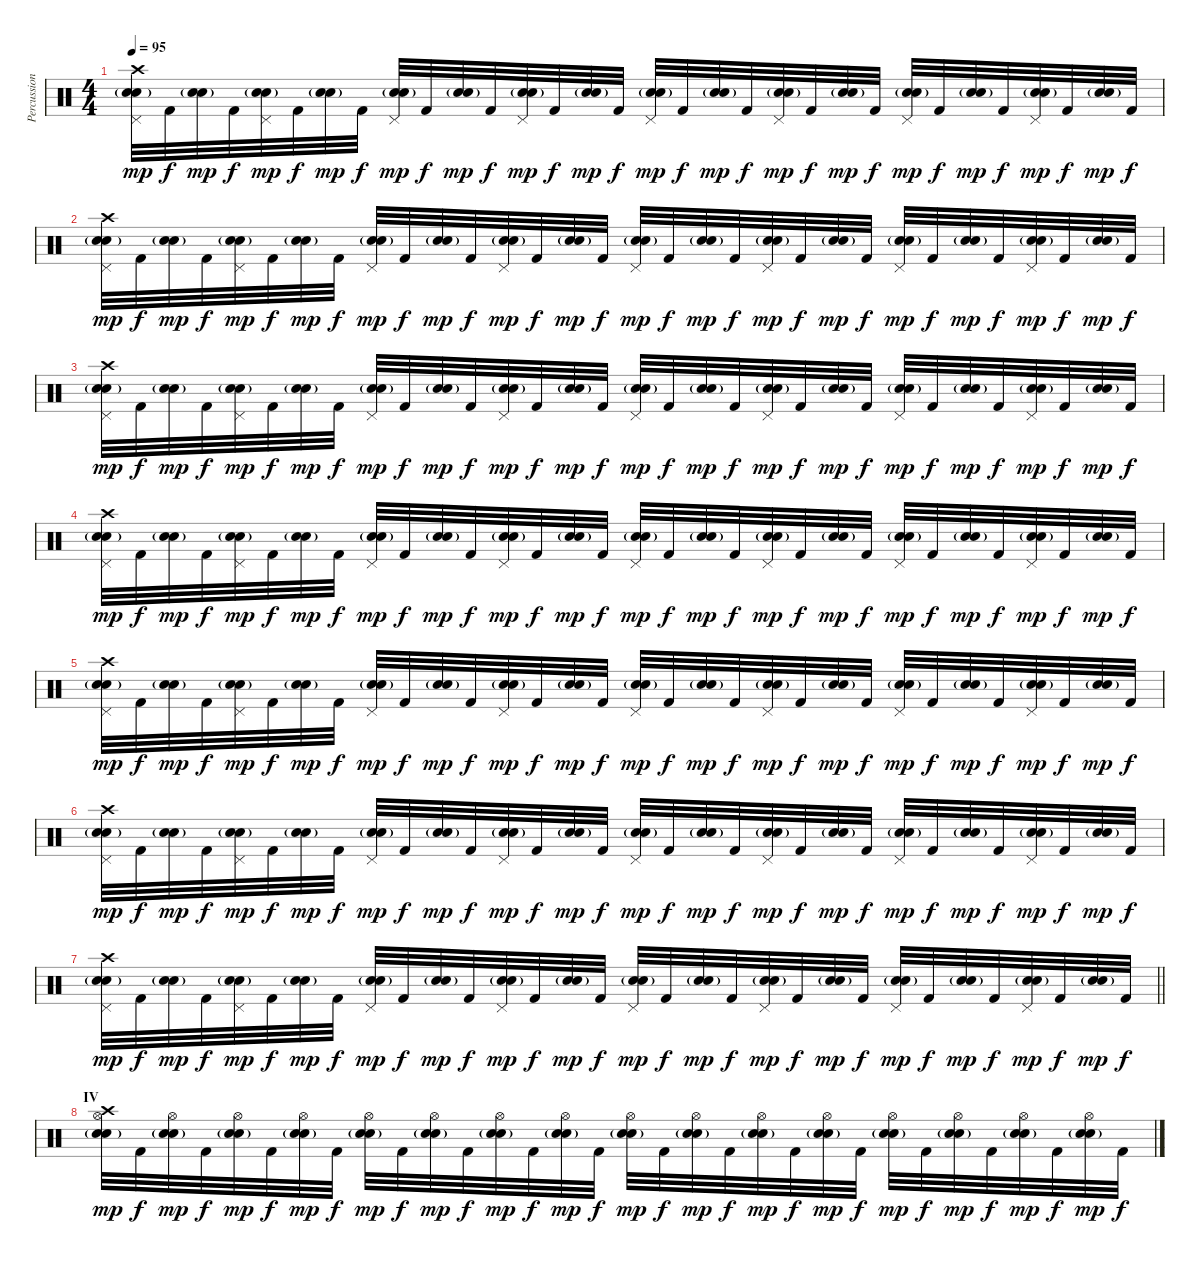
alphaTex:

\track ("Percussion" "Percussion") {instrument percussion}
\staff {score}
\articulation defaults
\ts (4 4)
\tempo 95
\clef neutral
\ks c
("Crash high (hit)" "Electric Snare (hit)" "Snare (hit) 2"{g} "Pedal Hi-Hat (hit)").32{dy mp} "Kick (hit) 2".32{dy f} ("Electric Snare (hit)" "Snare (hit) 2"{g}).32{dy mp} "Kick (hit) 2".32{dy f} ("Electric Snare (hit)" "Snare (hit) 2"{g} "Pedal Hi-Hat (hit)").32{dy mp} "Kick (hit) 2".32{dy f} ("Electric Snare (hit)" "Snare (hit) 2"{g}).32{dy mp} "Kick (hit) 2".32{dy f} ("Electric Snare (hit)" "Snare (hit) 2"{g} "Pedal Hi-Hat (hit)").32{dy mp} "Kick (hit) 2".32{dy f} ("Electric Snare (hit)" "Snare (hit) 2"{g}).32{dy mp} "Kick (hit) 2".32{dy f} ("Electric Snare (hit)" "Snare (hit) 2"{g} "Pedal Hi-Hat (hit)").32{dy mp} "Kick (hit) 2".32{dy f} ("Electric Snare (hit)" "Snare (hit) 2"{g}).32{dy mp} "Kick (hit) 2".32{dy f} ("Electric Snare (hit)" "Snare (hit) 2"{g} "Pedal Hi-Hat (hit)").32{dy mp} "Kick (hit) 2".32{dy f} ("Electric Snare (hit)" "Snare (hit) 2"{g}).32{dy mp} "Kick (hit) 2".32{dy f} ("Electric Snare (hit)" "Snare (hit) 2"{g} "Pedal Hi-Hat (hit)").32{dy mp} "Kick (hit) 2".32{dy f} ("Electric Snare (hit)" "Snare (hit) 2"{g}).32{dy mp} "Kick (hit) 2".32{dy f} ("Electric Snare (hit)" "Snare (hit) 2"{g} "Pedal Hi-Hat (hit)").32{dy mp} "Kick (hit) 2".32{dy f} ("Electric Snare (hit)" "Snare (hit) 2"{g}).32{dy mp} "Kick (hit) 2".32{dy f} ("Electric Snare (hit)" "Snare (hit) 2"{g} "Pedal Hi-Hat (hit)").32{dy mp} "Kick (hit) 2".32{dy f} ("Electric Snare (hit)" "Snare (hit) 2"{g}).32{dy mp} "Kick (hit) 2".32{dy f} |
("Crash high (hit)" "Electric Snare (hit)" "Snare (hit) 2"{g} "Pedal Hi-Hat (hit)").32{dy mp} "Kick (hit) 2".32{dy f} ("Electric Snare (hit)" "Snare (hit) 2"{g}).32{dy mp} "Kick (hit) 2".32{dy f} ("Electric Snare (hit)" "Snare (hit) 2"{g} "Pedal Hi-Hat (hit)").32{dy mp} "Kick (hit) 2".32{dy f} ("Electric Snare (hit)" "Snare (hit) 2"{g}).32{dy mp} "Kick (hit) 2".32{dy f} ("Electric Snare (hit)" "Snare (hit) 2"{g} "Pedal Hi-Hat (hit)").32{dy mp} "Kick (hit) 2".32{dy f} ("Electric Snare (hit)" "Snare (hit) 2"{g}).32{dy mp} "Kick (hit) 2".32{dy f} ("Electric Snare (hit)" "Snare (hit) 2"{g} "Pedal Hi-Hat (hit)").32{dy mp} "Kick (hit) 2".32{dy f} ("Electric Snare (hit)" "Snare (hit) 2"{g}).32{dy mp} "Kick (hit) 2".32{dy f} ("Electric Snare (hit)" "Snare (hit) 2"{g} "Pedal Hi-Hat (hit)").32{dy mp} "Kick (hit) 2".32{dy f} ("Electric Snare (hit)" "Snare (hit) 2"{g}).32{dy mp} "Kick (hit) 2".32{dy f} ("Electric Snare (hit)" "Snare (hit) 2"{g} "Pedal Hi-Hat (hit)").32{dy mp} "Kick (hit) 2".32{dy f} ("Electric Snare (hit)" "Snare (hit) 2"{g}).32{dy mp} "Kick (hit) 2".32{dy f} ("Electric Snare (hit)" "Snare (hit) 2"{g} "Pedal Hi-Hat (hit)").32{dy mp} "Kick (hit) 2".32{dy f} ("Electric Snare (hit)" "Snare (hit) 2"{g}).32{dy mp} "Kick (hit) 2".32{dy f} ("Electric Snare (hit)" "Snare (hit) 2"{g} "Pedal Hi-Hat (hit)").32{dy mp} "Kick (hit) 2".32{dy f} ("Electric Snare (hit)" "Snare (hit) 2"{g}).32{dy mp} "Kick (hit) 2".32{dy f} |
("Crash high (hit)" "Electric Snare (hit)" "Snare (hit) 2"{g} "Pedal Hi-Hat (hit)").32{dy mp} "Kick (hit) 2".32{dy f} ("Electric Snare (hit)" "Snare (hit) 2"{g}).32{dy mp} "Kick (hit) 2".32{dy f} ("Electric Snare (hit)" "Snare (hit) 2"{g} "Pedal Hi-Hat (hit)").32{dy mp} "Kick (hit) 2".32{dy f} ("Electric Snare (hit)" "Snare (hit) 2"{g}).32{dy mp} "Kick (hit) 2".32{dy f} ("Electric Snare (hit)" "Snare (hit) 2"{g} "Pedal Hi-Hat (hit)").32{dy mp} "Kick (hit) 2".32{dy f} ("Electric Snare (hit)" "Snare (hit) 2"{g}).32{dy mp} "Kick (hit) 2".32{dy f} ("Electric Snare (hit)" "Snare (hit) 2"{g} "Pedal Hi-Hat (hit)").32{dy mp} "Kick (hit) 2".32{dy f} ("Electric Snare (hit)" "Snare (hit) 2"{g}).32{dy mp} "Kick (hit) 2".32{dy f} ("Electric Snare (hit)" "Snare (hit) 2"{g} "Pedal Hi-Hat (hit)").32{dy mp} "Kick (hit) 2".32{dy f} ("Electric Snare (hit)" "Snare (hit) 2"{g}).32{dy mp} "Kick (hit) 2".32{dy f} ("Electric Snare (hit)" "Snare (hit) 2"{g} "Pedal Hi-Hat (hit)").32{dy mp} "Kick (hit) 2".32{dy f} ("Electric Snare (hit)" "Snare (hit) 2"{g}).32{dy mp} "Kick (hit) 2".32{dy f} ("Electric Snare (hit)" "Snare (hit) 2"{g} "Pedal Hi-Hat (hit)").32{dy mp} "Kick (hit) 2".32{dy f} ("Electric Snare (hit)" "Snare (hit) 2"{g}).32{dy mp} "Kick (hit) 2".32{dy f} ("Electric Snare (hit)" "Snare (hit) 2"{g} "Pedal Hi-Hat (hit)").32{dy mp} "Kick (hit) 2".32{dy f} ("Electric Snare (hit)" "Snare (hit) 2"{g}).32{dy mp} "Kick (hit) 2".32{dy f} |
("Crash high (hit)" "Electric Snare (hit)" "Snare (hit) 2"{g} "Pedal Hi-Hat (hit)").32{dy mp} "Kick (hit) 2".32{dy f} ("Electric Snare (hit)" "Snare (hit) 2"{g}).32{dy mp} "Kick (hit) 2".32{dy f} ("Electric Snare (hit)" "Snare (hit) 2"{g} "Pedal Hi-Hat (hit)").32{dy mp} "Kick (hit) 2".32{dy f} ("Electric Snare (hit)" "Snare (hit) 2"{g}).32{dy mp} "Kick (hit) 2".32{dy f} ("Electric Snare (hit)" "Snare (hit) 2"{g} "Pedal Hi-Hat (hit)").32{dy mp} "Kick (hit) 2".32{dy f} ("Electric Snare (hit)" "Snare (hit) 2"{g}).32{dy mp} "Kick (hit) 2".32{dy f} ("Electric Snare (hit)" "Snare (hit) 2"{g} "Pedal Hi-Hat (hit)").32{dy mp} "Kick (hit) 2".32{dy f} ("Electric Snare (hit)" "Snare (hit) 2"{g}).32{dy mp} "Kick (hit) 2".32{dy f} ("Electric Snare (hit)" "Snare (hit) 2"{g} "Pedal Hi-Hat (hit)").32{dy mp} "Kick (hit) 2".32{dy f} ("Electric Snare (hit)" "Snare (hit) 2"{g}).32{dy mp} "Kick (hit) 2".32{dy f} ("Electric Snare (hit)" "Snare (hit) 2"{g} "Pedal Hi-Hat (hit)").32{dy mp} "Kick (hit) 2".32{dy f} ("Electric Snare (hit)" "Snare (hit) 2"{g}).32{dy mp} "Kick (hit) 2".32{dy f} ("Electric Snare (hit)" "Snare (hit) 2"{g} "Pedal Hi-Hat (hit)").32{dy mp} "Kick (hit) 2".32{dy f} ("Electric Snare (hit)" "Snare (hit) 2"{g}).32{dy mp} "Kick (hit) 2".32{dy f} ("Electric Snare (hit)" "Snare (hit) 2"{g} "Pedal Hi-Hat (hit)").32{dy mp} "Kick (hit) 2".32{dy f} ("Electric Snare (hit)" "Snare (hit) 2"{g}).32{dy mp} "Kick (hit) 2".32{dy f} |
("Crash high (hit)" "Electric Snare (hit)" "Snare (hit) 2"{g} "Pedal Hi-Hat (hit)").32{dy mp} "Kick (hit) 2".32{dy f} ("Electric Snare (hit)" "Snare (hit) 2"{g}).32{dy mp} "Kick (hit) 2".32{dy f} ("Electric Snare (hit)" "Snare (hit) 2"{g} "Pedal Hi-Hat (hit)").32{dy mp} "Kick (hit) 2".32{dy f} ("Electric Snare (hit)" "Snare (hit) 2"{g}).32{dy mp} "Kick (hit) 2".32{dy f} ("Electric Snare (hit)" "Snare (hit) 2"{g} "Pedal Hi-Hat (hit)").32{dy mp} "Kick (hit) 2".32{dy f} ("Electric Snare (hit)" "Snare (hit) 2"{g}).32{dy mp} "Kick (hit) 2".32{dy f} ("Electric Snare (hit)" "Snare (hit) 2"{g} "Pedal Hi-Hat (hit)").32{dy mp} "Kick (hit) 2".32{dy f} ("Electric Snare (hit)" "Snare (hit) 2"{g}).32{dy mp} "Kick (hit) 2".32{dy f} ("Electric Snare (hit)" "Snare (hit) 2"{g} "Pedal Hi-Hat (hit)").32{dy mp} "Kick (hit) 2".32{dy f} ("Electric Snare (hit)" "Snare (hit) 2"{g}).32{dy mp} "Kick (hit) 2".32{dy f} ("Electric Snare (hit)" "Snare (hit) 2"{g} "Pedal Hi-Hat (hit)").32{dy mp} "Kick (hit) 2".32{dy f} ("Electric Snare (hit)" "Snare (hit) 2"{g}).32{dy mp} "Kick (hit) 2".32{dy f} ("Electric Snare (hit)" "Snare (hit) 2"{g} "Pedal Hi-Hat (hit)").32{dy mp} "Kick (hit) 2".32{dy f} ("Electric Snare (hit)" "Snare (hit) 2"{g}).32{dy mp} "Kick (hit) 2".32{dy f} ("Electric Snare (hit)" "Snare (hit) 2"{g} "Pedal Hi-Hat (hit)").32{dy mp} "Kick (hit) 2".32{dy f} ("Electric Snare (hit)" "Snare (hit) 2"{g}).32{dy mp} "Kick (hit) 2".32{dy f} |
("Crash high (hit)" "Electric Snare (hit)" "Snare (hit) 2"{g} "Pedal Hi-Hat (hit)").32{dy mp} "Kick (hit) 2".32{dy f} ("Electric Snare (hit)" "Snare (hit) 2"{g}).32{dy mp} "Kick (hit) 2".32{dy f} ("Electric Snare (hit)" "Snare (hit) 2"{g} "Pedal Hi-Hat (hit)").32{dy mp} "Kick (hit) 2".32{dy f} ("Electric Snare (hit)" "Snare (hit) 2"{g}).32{dy mp} "Kick (hit) 2".32{dy f} ("Electric Snare (hit)" "Snare (hit) 2"{g} "Pedal Hi-Hat (hit)").32{dy mp} "Kick (hit) 2".32{dy f} ("Electric Snare (hit)" "Snare (hit) 2"{g}).32{dy mp} "Kick (hit) 2".32{dy f} ("Electric Snare (hit)" "Snare (hit) 2"{g} "Pedal Hi-Hat (hit)").32{dy mp} "Kick (hit) 2".32{dy f} ("Electric Snare (hit)" "Snare (hit) 2"{g}).32{dy mp} "Kick (hit) 2".32{dy f} ("Electric Snare (hit)" "Snare (hit) 2"{g} "Pedal Hi-Hat (hit)").32{dy mp} "Kick (hit) 2".32{dy f} ("Electric Snare (hit)" "Snare (hit) 2"{g}).32{dy mp} "Kick (hit) 2".32{dy f} ("Electric Snare (hit)" "Snare (hit) 2"{g} "Pedal Hi-Hat (hit)").32{dy mp} "Kick (hit) 2".32{dy f} ("Electric Snare (hit)" "Snare (hit) 2"{g}).32{dy mp} "Kick (hit) 2".32{dy f} ("Electric Snare (hit)" "Snare (hit) 2"{g} "Pedal Hi-Hat (hit)").32{dy mp} "Kick (hit) 2".32{dy f} ("Electric Snare (hit)" "Snare (hit) 2"{g}).32{dy mp} "Kick (hit) 2".32{dy f} ("Electric Snare (hit)" "Snare (hit) 2"{g} "Pedal Hi-Hat (hit)").32{dy mp} "Kick (hit) 2".32{dy f} ("Electric Snare (hit)" "Snare (hit) 2"{g}).32{dy mp} "Kick (hit) 2".32{dy f} |
\barLineRight lightlight
("Crash high (hit)" "Electric Snare (hit)" "Snare (hit) 2"{g} "Pedal Hi-Hat (hit)").32{dy mp} "Kick (hit) 2".32{dy f} ("Electric Snare (hit)" "Snare (hit) 2"{g}).32{dy mp} "Kick (hit) 2".32{dy f} ("Electric Snare (hit)" "Snare (hit) 2"{g} "Pedal Hi-Hat (hit)").32{dy mp} "Kick (hit) 2".32{dy f} ("Electric Snare (hit)" "Snare (hit) 2"{g}).32{dy mp} "Kick (hit) 2".32{dy f} ("Electric Snare (hit)" "Snare (hit) 2"{g} "Pedal Hi-Hat (hit)").32{dy mp} "Kick (hit) 2".32{dy f} ("Electric Snare (hit)" "Snare (hit) 2"{g}).32{dy mp} "Kick (hit) 2".32{dy f} ("Electric Snare (hit)" "Snare (hit) 2"{g} "Pedal Hi-Hat (hit)").32{dy mp} "Kick (hit) 2".32{dy f} ("Electric Snare (hit)" "Snare (hit) 2"{g}).32{dy mp} "Kick (hit) 2".32{dy f} ("Electric Snare (hit)" "Snare (hit) 2"{g} "Pedal Hi-Hat (hit)").32{dy mp} "Kick (hit) 2".32{dy f} ("Electric Snare (hit)" "Snare (hit) 2"{g}).32{dy mp} "Kick (hit) 2".32{dy f} ("Electric Snare (hit)" "Snare (hit) 2"{g} "Pedal Hi-Hat (hit)").32{dy mp} "Kick (hit) 2".32{dy f} ("Electric Snare (hit)" "Snare (hit) 2"{g}).32{dy mp} "Kick (hit) 2".32{dy f} ("Electric Snare (hit)" "Snare (hit) 2"{g} "Pedal Hi-Hat (hit)").32{dy mp} "Kick (hit) 2".32{dy f} ("Electric Snare (hit)" "Snare (hit) 2"{g}).32{dy mp} "Kick (hit) 2".32{dy f} ("Electric Snare (hit)" "Snare (hit) 2"{g} "Pedal Hi-Hat (hit)").32{dy mp} "Kick (hit) 2".32{dy f} ("Electric Snare (hit)" "Snare (hit) 2"{g}).32{dy mp} "Kick (hit) 2".32{dy f} |
\section ("" "IV")
("Crash high (hit)" "Electric Snare (hit)" "Snare (hit) 2"{g} "Hi-Hat (open)").32{dy mp} "Kick (hit) 2".32{dy f} ("Electric Snare (hit)" "Snare (hit) 2"{g} "Hi-Hat (open)").32{dy mp} "Kick (hit) 2".32{dy f} ("Electric Snare (hit)" "Snare (hit) 2"{g} "Hi-Hat (open)").32{dy mp} "Kick (hit) 2".32{dy f} ("Electric Snare (hit)" "Snare (hit) 2"{g} "Hi-Hat (open)").32{dy mp} "Kick (hit) 2".32{dy f} ("Electric Snare (hit)" "Snare (hit) 2"{g} "Hi-Hat (open)").32{dy mp} "Kick (hit) 2".32{dy f} ("Electric Snare (hit)" "Snare (hit) 2"{g} "Hi-Hat (open)").32{dy mp} "Kick (hit) 2".32{dy f} ("Electric Snare (hit)" "Snare (hit) 2"{g} "Hi-Hat (open)").32{dy mp} "Kick (hit) 2".32{dy f} ("Electric Snare (hit)" "Snare (hit) 2"{g} "Hi-Hat (open)").32{dy mp} "Kick (hit) 2".32{dy f} ("Electric Snare (hit)" "Snare (hit) 2"{g} "Hi-Hat (open)").32{dy mp} "Kick (hit) 2".32{dy f} ("Electric Snare (hit)" "Snare (hit) 2"{g} "Hi-Hat (open)").32{dy mp} "Kick (hit) 2".32{dy f} ("Electric Snare (hit)" "Snare (hit) 2"{g} "Hi-Hat (open)").32{dy mp} "Kick (hit) 2".32{dy f} ("Electric Snare (hit)" "Snare (hit) 2"{g} "Hi-Hat (open)").32{dy mp} "Kick (hit) 2".32{dy f} ("Electric Snare (hit)" "Snare (hit) 2"{g} "Hi-Hat (open)").32{dy mp} "Kick (hit) 2".32{dy f} ("Electric Snare (hit)" "Snare (hit) 2"{g} "Hi-Hat (open)").32{dy mp} "Kick (hit) 2".32{dy f} ("Electric Snare (hit)" "Snare (hit) 2"{g} "Hi-Hat (open)").32{dy mp} "Kick (hit) 2".32{dy f} ("Electric Snare (hit)" "Snare (hit) 2"{g} "Hi-Hat (open)").32{dy mp} "Kick (hit) 2".32{dy f}
